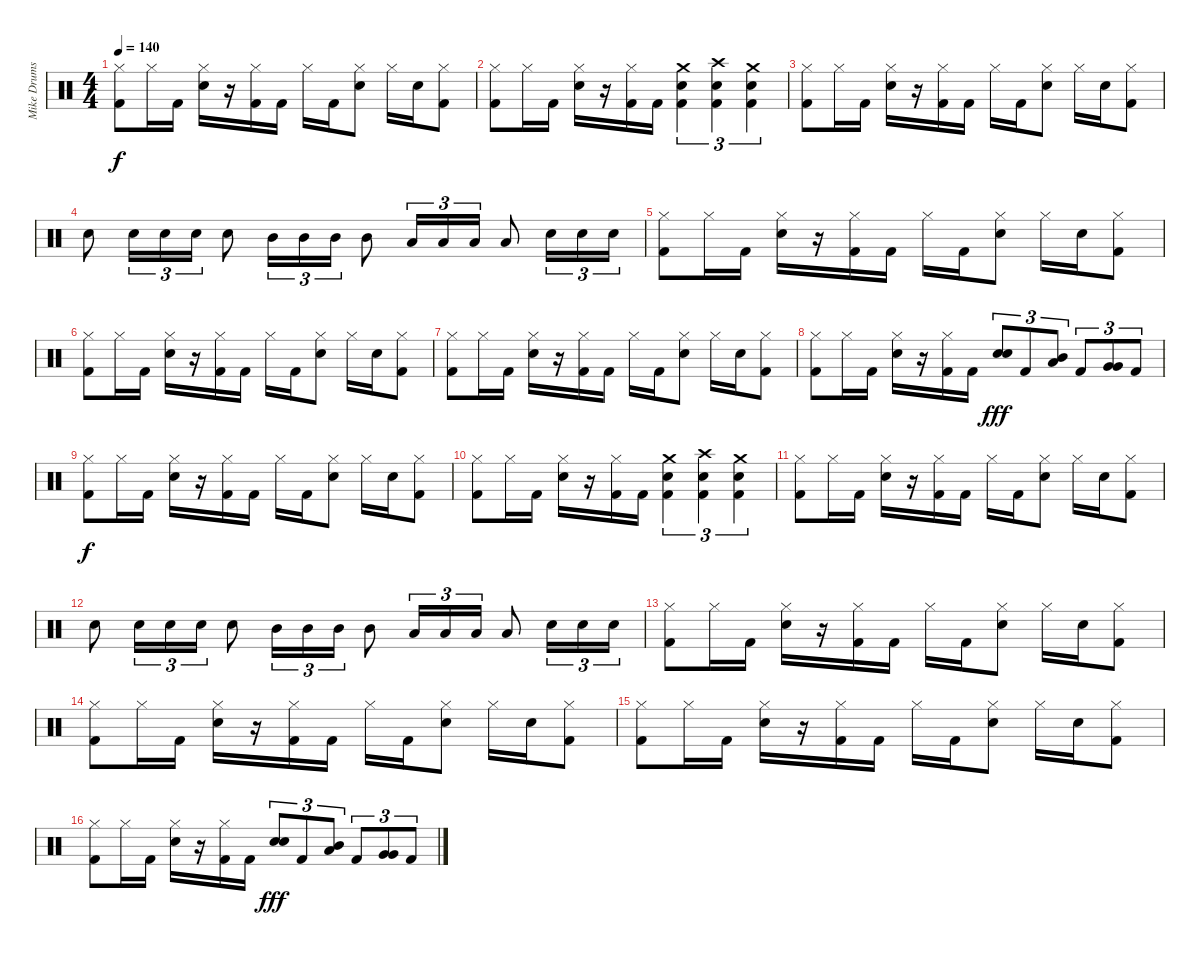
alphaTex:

\track ("Mike Drums" "Mike Drums") {instrument percussion}
\staff {score}
\articulation defaults
\ts (4 4)
\tempo 140
\clef neutral
\ks c
("Hi-Hat (closed)" "Kick (hit) 2").8{dy f} "Hi-Hat (closed)".16 "Kick (hit) 2".16 ("Hi-Hat (closed)" "Electric Snare (hit)").16 r.16 ("Hi-Hat (closed)" "Kick (hit) 2").16 "Kick (hit) 2".16 "Hi-Hat (closed)".16 "Kick (hit) 2".16 ("Hi-Hat (closed)" "Electric Snare (hit)").8 "Hi-Hat (closed)".16 "Electric Snare (hit)".16 ("Hi-Hat (closed)" "Kick (hit) 2").8 |
("Hi-Hat (closed)" "Kick (hit) 2").8 "Hi-Hat (closed)".16 "Kick (hit) 2".16 ("Hi-Hat (closed)" "Electric Snare (hit)").16 r.16 ("Hi-Hat (closed)" "Kick (hit) 2").16 "Kick (hit) 2".16 ("Crash medium (hit)" "Electric Snare (hit)" "Kick (hit) 2").4{tu (3 2)} ("Crash high (hit)" "Electric Snare (hit)" "Kick (hit) 2").4{tu (3 2)} ("Crash medium (hit)" "Electric Snare (hit)" "Kick (hit) 2").4{tu (3 2)} |
("Hi-Hat (closed)" "Kick (hit) 2").8 "Hi-Hat (closed)".16 "Kick (hit) 2".16 ("Hi-Hat (closed)" "Electric Snare (hit)").16 r.16 ("Hi-Hat (closed)" "Kick (hit) 2").16 "Kick (hit) 2".16 "Hi-Hat (closed)".16 "Kick (hit) 2".16 ("Hi-Hat (closed)" "Electric Snare (hit)").8 "Hi-Hat (closed)".16 "Electric Snare (hit)".16 ("Hi-Hat (closed)" "Kick (hit) 2").8 |
"Electric Snare (hit)".8 "Electric Snare (hit)".16{tu (3 2)} "Electric Snare (hit)".16{tu (3 2)} "Electric Snare (hit)".16{tu (3 2)} "Electric Snare (hit)".8 "Mid Tom (hit)".16{tu (3 2)} "Mid Tom (hit)".16{tu (3 2)} "Mid Tom (hit)".16{tu (3 2)} "Mid Tom (hit)".8 "Low Tom (hit)".16{tu (3 2)} "Low Tom (hit)".16{tu (3 2)} "Low Tom (hit)".16{tu (3 2)} "Low Tom (hit)".8 "Electric Snare (hit)".16{tu (3 2)} "Electric Snare (hit)".16{tu (3 2)} "Electric Snare (hit)".16{tu (3 2)} |
("Hi-Hat (closed)" "Kick (hit) 2").8 "Hi-Hat (closed)".16 "Kick (hit) 2".16 ("Hi-Hat (closed)" "Electric Snare (hit)").16 r.16 ("Hi-Hat (closed)" "Kick (hit) 2").16 "Kick (hit) 2".16 "Hi-Hat (closed)".16 "Kick (hit) 2".16 ("Hi-Hat (closed)" "Electric Snare (hit)").8 "Hi-Hat (closed)".16 "Electric Snare (hit)".16 ("Hi-Hat (closed)" "Kick (hit) 2").8 |
("Hi-Hat (closed)" "Kick (hit) 2").8 "Hi-Hat (closed)".16 "Kick (hit) 2".16 ("Hi-Hat (closed)" "Electric Snare (hit)").16 r.16 ("Hi-Hat (closed)" "Kick (hit) 2").16 "Kick (hit) 2".16 "Hi-Hat (closed)".16 "Kick (hit) 2".16 ("Hi-Hat (closed)" "Electric Snare (hit)").8 "Hi-Hat (closed)".16 "Electric Snare (hit)".16 ("Hi-Hat (closed)" "Kick (hit) 2").8 |
("Hi-Hat (closed)" "Kick (hit) 2").8 "Hi-Hat (closed)".16 "Kick (hit) 2".16 ("Hi-Hat (closed)" "Electric Snare (hit)").16 r.16 ("Hi-Hat (closed)" "Kick (hit) 2").16 "Kick (hit) 2".16 "Hi-Hat (closed)".16 "Kick (hit) 2".16 ("Hi-Hat (closed)" "Electric Snare (hit)").8 "Hi-Hat (closed)".16 "Electric Snare (hit)".16 ("Hi-Hat (closed)" "Kick (hit) 2").8 |
("Hi-Hat (closed)" "Kick (hit) 2").8 "Hi-Hat (closed)".16 "Kick (hit) 2".16 ("Hi-Hat (closed)" "Electric Snare (hit)").16 r.16 ("Hi-Hat (closed)" "Kick (hit) 2").16 "Kick (hit) 2".16 ("Electric Snare (hit)" "Electric Snare (hit)").8{tu (3 2) dy fff} "Kick (hit) 2".8{tu (3 2)} ("Mid Tom (hit)" "Low Tom (hit)").8{tu (3 2)} "Kick (hit) 2".8{tu (3 2)} ("Very Low Tom (hit)" "Very Low Tom (hit)").8{tu (3 2)} "Kick (hit) 2".8{tu (3 2)} |
("Hi-Hat (closed)" "Kick (hit) 2").8{dy f} "Hi-Hat (closed)".16 "Kick (hit) 2".16 ("Hi-Hat (closed)" "Electric Snare (hit)").16 r.16 ("Hi-Hat (closed)" "Kick (hit) 2").16 "Kick (hit) 2".16 "Hi-Hat (closed)".16 "Kick (hit) 2".16 ("Hi-Hat (closed)" "Electric Snare (hit)").8 "Hi-Hat (closed)".16 "Electric Snare (hit)".16 ("Hi-Hat (closed)" "Kick (hit) 2").8 |
("Hi-Hat (closed)" "Kick (hit) 2").8 "Hi-Hat (closed)".16 "Kick (hit) 2".16 ("Hi-Hat (closed)" "Electric Snare (hit)").16 r.16 ("Hi-Hat (closed)" "Kick (hit) 2").16 "Kick (hit) 2".16 ("Crash medium (hit)" "Electric Snare (hit)" "Kick (hit) 2").4{tu (3 2)} ("Crash high (hit)" "Electric Snare (hit)" "Kick (hit) 2").4{tu (3 2)} ("Crash medium (hit)" "Electric Snare (hit)" "Kick (hit) 2").4{tu (3 2)} |
("Hi-Hat (closed)" "Kick (hit) 2").8 "Hi-Hat (closed)".16 "Kick (hit) 2".16 ("Hi-Hat (closed)" "Electric Snare (hit)").16 r.16 ("Hi-Hat (closed)" "Kick (hit) 2").16 "Kick (hit) 2".16 "Hi-Hat (closed)".16 "Kick (hit) 2".16 ("Hi-Hat (closed)" "Electric Snare (hit)").8 "Hi-Hat (closed)".16 "Electric Snare (hit)".16 ("Hi-Hat (closed)" "Kick (hit) 2").8 |
"Electric Snare (hit)".8 "Electric Snare (hit)".16{tu (3 2)} "Electric Snare (hit)".16{tu (3 2)} "Electric Snare (hit)".16{tu (3 2)} "Electric Snare (hit)".8 "Mid Tom (hit)".16{tu (3 2)} "Mid Tom (hit)".16{tu (3 2)} "Mid Tom (hit)".16{tu (3 2)} "Mid Tom (hit)".8 "Low Tom (hit)".16{tu (3 2)} "Low Tom (hit)".16{tu (3 2)} "Low Tom (hit)".16{tu (3 2)} "Low Tom (hit)".8 "Electric Snare (hit)".16{tu (3 2)} "Electric Snare (hit)".16{tu (3 2)} "Electric Snare (hit)".16{tu (3 2)} |
("Hi-Hat (closed)" "Kick (hit) 2").8 "Hi-Hat (closed)".16 "Kick (hit) 2".16 ("Hi-Hat (closed)" "Electric Snare (hit)").16 r.16 ("Hi-Hat (closed)" "Kick (hit) 2").16 "Kick (hit) 2".16 "Hi-Hat (closed)".16 "Kick (hit) 2".16 ("Hi-Hat (closed)" "Electric Snare (hit)").8 "Hi-Hat (closed)".16 "Electric Snare (hit)".16 ("Hi-Hat (closed)" "Kick (hit) 2").8 |
("Hi-Hat (closed)" "Kick (hit) 2").8 "Hi-Hat (closed)".16 "Kick (hit) 2".16 ("Hi-Hat (closed)" "Electric Snare (hit)").16 r.16 ("Hi-Hat (closed)" "Kick (hit) 2").16 "Kick (hit) 2".16 "Hi-Hat (closed)".16 "Kick (hit) 2".16 ("Hi-Hat (closed)" "Electric Snare (hit)").8 "Hi-Hat (closed)".16 "Electric Snare (hit)".16 ("Hi-Hat (closed)" "Kick (hit) 2").8 |
("Hi-Hat (closed)" "Kick (hit) 2").8 "Hi-Hat (closed)".16 "Kick (hit) 2".16 ("Hi-Hat (closed)" "Electric Snare (hit)").16 r.16 ("Hi-Hat (closed)" "Kick (hit) 2").16 "Kick (hit) 2".16 "Hi-Hat (closed)".16 "Kick (hit) 2".16 ("Hi-Hat (closed)" "Electric Snare (hit)").8 "Hi-Hat (closed)".16 "Electric Snare (hit)".16 ("Hi-Hat (closed)" "Kick (hit) 2").8 |
("Hi-Hat (closed)" "Kick (hit) 2").8 "Hi-Hat (closed)".16 "Kick (hit) 2".16 ("Hi-Hat (closed)" "Electric Snare (hit)").16 r.16 ("Hi-Hat (closed)" "Kick (hit) 2").16 "Kick (hit) 2".16 ("Electric Snare (hit)" "Electric Snare (hit)").8{tu (3 2) dy fff} "Kick (hit) 2".8{tu (3 2)} ("Mid Tom (hit)" "Low Tom (hit)").8{tu (3 2)} "Kick (hit) 2".8{tu (3 2)} ("Very Low Tom (hit)" "Very Low Tom (hit)").8{tu (3 2)} "Kick (hit) 2".8{tu (3 2)}
